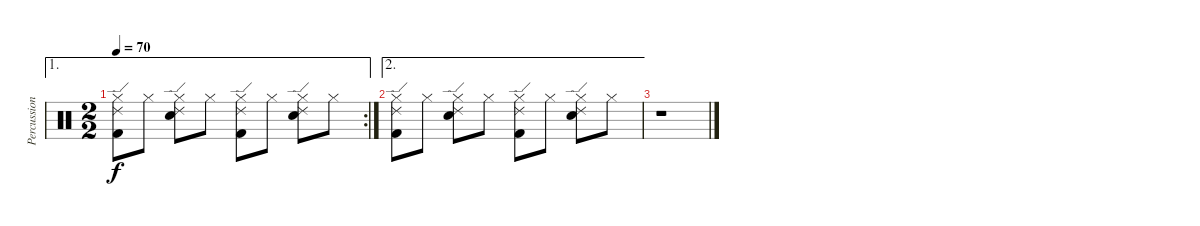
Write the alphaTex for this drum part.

\track ("Percussions" "Percussion") {instrument percussion}
\staff {score}
\articulation defaults
\ae 1
\rc 2
\ts (2 2)
\tempo 70
\clef neutral
\ks c
("Kick (hit) 2" "Hi-Hat (closed)" "Ride (edge) 2").8{dy f} "Hi-Hat (closed)".8 ("Hi-Hat (closed)" "Electric Snare (hit)" "Ride (edge) 2").8 "Hi-Hat (closed)".8 ("Kick (hit) 2" "Hi-Hat (closed)" "Ride (edge) 2").8 "Hi-Hat (closed)".8 ("Hi-Hat (closed)" "Electric Snare (hit)" "Ride (edge) 2").8 "Hi-Hat (closed)".8 |
\ae 2
("Kick (hit) 2" "Hi-Hat (closed)" "Ride (edge) 2").8 "Hi-Hat (closed)".8 ("Hi-Hat (closed)" "Electric Snare (hit)" "Ride (edge) 2").8 "Hi-Hat (closed)".8 ("Kick (hit) 2" "Hi-Hat (closed)" "Ride (edge) 2").8 "Hi-Hat (closed)".8 ("Hi-Hat (closed)" "Electric Snare (hit)" "Ride (edge) 2").8 "Hi-Hat (closed)".8 |
r.1
